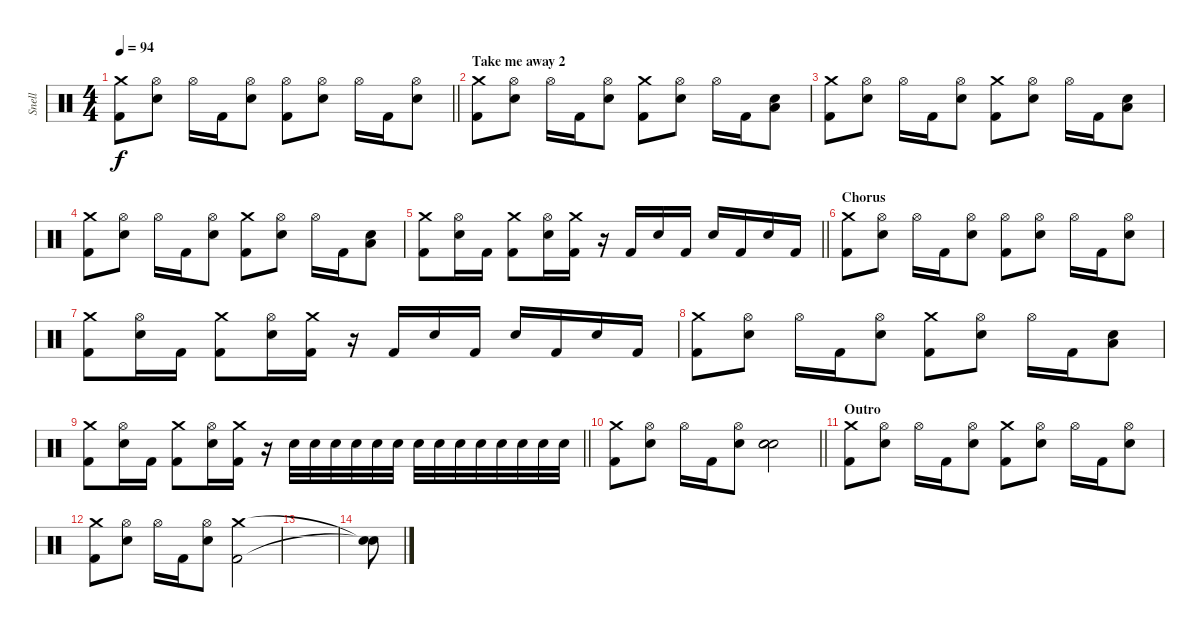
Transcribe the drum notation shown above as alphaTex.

\track ("Snell" "Snell") {instrument percussion}
\staff {score}
\articulation defaults
\ts (4 4)
\tempo 94
\clef neutral
\barLineRight lightlight
\ks c
("Crash medium (hit)" "Kick (hit) 2").8{dy f} ("Hi-Hat (open)" "Electric Snare (hit)").8 "Hi-Hat (open)".16 "Kick (hit) 2".16 ("Hi-Hat (open)" "Electric Snare (hit)").8 ("Hi-Hat (open)" "Kick (hit) 2").8 ("Hi-Hat (open)" "Electric Snare (hit)").8 "Hi-Hat (open)".16 "Kick (hit) 2".16 ("Hi-Hat (open)" "Electric Snare (hit)").8 |
\section ("" "Take me away 2")
("Crash medium (hit)" "Kick (hit) 2").8 ("Hi-Hat (open)" "Electric Snare (hit)").8 "Hi-Hat (open)".16 "Kick (hit) 2".16 ("Hi-Hat (open)" "Electric Snare (hit)").8 ("Crash medium (hit)" "Kick (hit) 2").8 ("Hi-Hat (open)" "Electric Snare (hit)").8 "Hi-Hat (open)".16 "Kick (hit) 2".16 ("Low Tom (hit)" "Electric Snare (hit)").8 |
("Crash medium (hit)" "Kick (hit) 2").8 ("Hi-Hat (open)" "Electric Snare (hit)").8 "Hi-Hat (open)".16 "Kick (hit) 2".16 ("Hi-Hat (open)" "Electric Snare (hit)").8 ("Crash medium (hit)" "Kick (hit) 2").8 ("Hi-Hat (open)" "Electric Snare (hit)").8 "Hi-Hat (open)".16 "Kick (hit) 2".16 ("Low Tom (hit)" "Electric Snare (hit)").8 |
("Crash medium (hit)" "Kick (hit) 2").8 ("Hi-Hat (open)" "Electric Snare (hit)").8 "Hi-Hat (open)".16 "Kick (hit) 2".16 ("Hi-Hat (open)" "Electric Snare (hit)").8 ("Crash medium (hit)" "Kick (hit) 2").8 ("Hi-Hat (open)" "Electric Snare (hit)").8 "Hi-Hat (open)".16 "Kick (hit) 2".16 ("Low Tom (hit)" "Electric Snare (hit)").8 |
\barLineRight lightlight
("Crash medium (hit)" "Kick (hit) 2").8 ("Hi-Hat (open)" "Electric Snare (hit)").16 "Kick (hit) 2".16 ("Crash medium (hit)" "Kick (hit) 2").8 ("Hi-Hat (open)" "Electric Snare (hit)").16 ("Crash medium (hit)" "Kick (hit) 2").16 r.16 "Kick (hit) 2".16 "Electric Snare (hit)".16 "Kick (hit) 2".16 "Electric Snare (hit)".16 "Kick (hit) 2".16 "Electric Snare (hit)".16 "Kick (hit) 2".16 |
\section ("" "Chorus")
("Crash medium (hit)" "Kick (hit) 2").8 ("Hi-Hat (open)" "Electric Snare (hit)").8 "Hi-Hat (open)".16 "Kick (hit) 2".16 ("Hi-Hat (open)" "Electric Snare (hit)").8 ("Hi-Hat (open)" "Kick (hit) 2").8 ("Hi-Hat (open)" "Electric Snare (hit)").8 "Hi-Hat (open)".16 "Kick (hit) 2".16 ("Hi-Hat (open)" "Electric Snare (hit)").8 |
("Crash medium (hit)" "Kick (hit) 2").8 ("Hi-Hat (open)" "Electric Snare (hit)").16 "Kick (hit) 2".16 ("Crash medium (hit)" "Kick (hit) 2").8 ("Hi-Hat (open)" "Electric Snare (hit)").16 ("Crash medium (hit)" "Kick (hit) 2").16 r.16 "Kick (hit) 2".16 "Electric Snare (hit)".16 "Kick (hit) 2".16 "Electric Snare (hit)".16 "Kick (hit) 2".16 "Electric Snare (hit)".16 "Kick (hit) 2".16 |
("Crash medium (hit)" "Kick (hit) 2").8 ("Hi-Hat (open)" "Electric Snare (hit)").8 "Hi-Hat (open)".16 "Kick (hit) 2".16 ("Hi-Hat (open)" "Electric Snare (hit)").8 ("Crash medium (hit)" "Kick (hit) 2").8 ("Hi-Hat (open)" "Electric Snare (hit)").8 "Hi-Hat (open)".16 "Kick (hit) 2".16 ("Low Tom (hit)" "Electric Snare (hit)").8 |
\barLineRight lightlight
("Crash medium (hit)" "Kick (hit) 2").8 ("Hi-Hat (open)" "Electric Snare (hit)").16 "Kick (hit) 2".16 ("Crash medium (hit)" "Kick (hit) 2").8 ("Hi-Hat (open)" "Electric Snare (hit)").16 ("Crash medium (hit)" "Kick (hit) 2").16 r.16 "Electric Snare (hit)".32 "Electric Snare (hit)".32 "Electric Snare (hit)".32 "Electric Snare (hit)".32 "Electric Snare (hit)".32 "Electric Snare (hit)".32 "Electric Snare (hit)".32 "Electric Snare (hit)".32 "Electric Snare (hit)".32 "Electric Snare (hit)".32 "Electric Snare (hit)".32 "Electric Snare (hit)".32 "Electric Snare (hit)".32 "Electric Snare (hit)".32 |
\barLineRight lightlight
("Crash medium (hit)" "Kick (hit) 2").8 ("Hi-Hat (open)" "Electric Snare (hit)").8 "Hi-Hat (open)".16 "Kick (hit) 2".16 ("Hi-Hat (open)" "Electric Snare (hit)").8 ("Electric Snare (hit)" "Electric Snare (hit)" "Snare (hit) 2").2 |
\section ("" "Outro")
("Crash medium (hit)" "Kick (hit) 2").8 ("Hi-Hat (open)" "Electric Snare (hit)").8 "Hi-Hat (open)".16 "Kick (hit) 2".16 ("Hi-Hat (open)" "Electric Snare (hit)").8 ("Crash medium (hit)" "Kick (hit) 2").8 ("Hi-Hat (open)" "Electric Snare (hit)").8 "Hi-Hat (open)".16 "Kick (hit) 2".16 ("Hi-Hat (open)" "Electric Snare (hit)").8 |
("Crash medium (hit)" "Kick (hit) 2").8 ("Hi-Hat (open)" "Electric Snare (hit)").8 "Hi-Hat (open)".16 "Kick (hit) 2".16 ("Hi-Hat (open)" "Electric Snare (hit)").8 ("Crash medium (hit)" "Kick (hit) 2").2 |
|
("Snare (hit)"{t} "Snare (hit)"{t}).8
